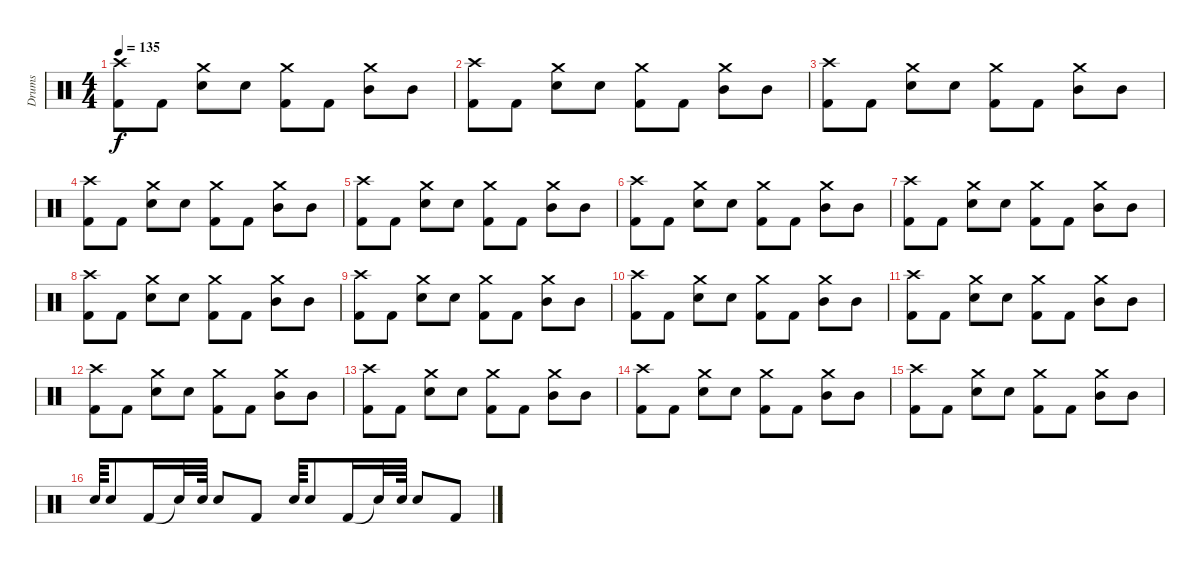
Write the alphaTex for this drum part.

\track ("Drums" "Drums") {instrument percussion}
\staff {score}
\articulation defaults
\ts (4 4)
\tempo 135
\clef neutral
\ks c
("Kick (hit) 2" "Crash high (hit)").8{dy f} "Kick (hit) 2".8 ("Snare (hit) 2" "Crash medium (hit)").8 "Snare (hit) 2".8 ("Kick (hit) 2" "Crash medium (hit)").8 "Kick (hit) 2".8 ("Mid Tom (hit)" "Crash medium (hit)").8 "Mid Tom (hit)".8 |
("Kick (hit) 2" "Crash high (hit)").8 "Kick (hit) 2".8 ("Snare (hit) 2" "Crash medium (hit)").8 "Snare (hit) 2".8 ("Kick (hit) 2" "Crash medium (hit)").8 "Kick (hit) 2".8 ("Mid Tom (hit)" "Crash medium (hit)").8 "Mid Tom (hit)".8 |
("Kick (hit) 2" "Crash high (hit)").8 "Kick (hit) 2".8 ("Snare (hit) 2" "Crash medium (hit)").8 "Snare (hit) 2".8 ("Kick (hit) 2" "Crash medium (hit)").8 "Kick (hit) 2".8 ("Mid Tom (hit)" "Crash medium (hit)").8 "Mid Tom (hit)".8 |
("Kick (hit) 2" "Crash high (hit)").8 "Kick (hit) 2".8 ("Snare (hit) 2" "Crash medium (hit)").8 "Snare (hit) 2".8 ("Kick (hit) 2" "Crash medium (hit)").8 "Kick (hit) 2".8 ("Mid Tom (hit)" "Crash medium (hit)").8 "Mid Tom (hit)".8 |
("Kick (hit) 2" "Crash high (hit)").8 "Kick (hit) 2".8 ("Snare (hit) 2" "Crash medium (hit)").8 "Snare (hit) 2".8 ("Kick (hit) 2" "Crash medium (hit)").8 "Kick (hit) 2".8 ("Mid Tom (hit)" "Crash medium (hit)").8 "Mid Tom (hit)".8 |
("Kick (hit) 2" "Crash high (hit)").8 "Kick (hit) 2".8 ("Snare (hit) 2" "Crash medium (hit)").8 "Snare (hit) 2".8 ("Kick (hit) 2" "Crash medium (hit)").8 "Kick (hit) 2".8 ("Mid Tom (hit)" "Crash medium (hit)").8 "Mid Tom (hit)".8 |
("Kick (hit) 2" "Crash high (hit)").8 "Kick (hit) 2".8 ("Snare (hit) 2" "Crash medium (hit)").8 "Snare (hit) 2".8 ("Kick (hit) 2" "Crash medium (hit)").8 "Kick (hit) 2".8 ("Mid Tom (hit)" "Crash medium (hit)").8 "Mid Tom (hit)".8 |
("Kick (hit) 2" "Crash high (hit)").8 "Kick (hit) 2".8 ("Snare (hit) 2" "Crash medium (hit)").8 "Snare (hit) 2".8 ("Kick (hit) 2" "Crash medium (hit)").8 "Kick (hit) 2".8 ("Mid Tom (hit)" "Crash medium (hit)").8 "Mid Tom (hit)".8 |
("Kick (hit) 2" "Crash high (hit)").8 "Kick (hit) 2".8 ("Snare (hit) 2" "Crash medium (hit)").8 "Snare (hit) 2".8 ("Kick (hit) 2" "Crash medium (hit)").8 "Kick (hit) 2".8 ("Mid Tom (hit)" "Crash medium (hit)").8 "Mid Tom (hit)".8 |
("Kick (hit) 2" "Crash high (hit)").8 "Kick (hit) 2".8 ("Snare (hit) 2" "Crash medium (hit)").8 "Snare (hit) 2".8 ("Kick (hit) 2" "Crash medium (hit)").8 "Kick (hit) 2".8 ("Mid Tom (hit)" "Crash medium (hit)").8 "Mid Tom (hit)".8 |
("Kick (hit) 2" "Crash high (hit)").8 "Kick (hit) 2".8 ("Snare (hit) 2" "Crash medium (hit)").8 "Snare (hit) 2".8 ("Kick (hit) 2" "Crash medium (hit)").8 "Kick (hit) 2".8 ("Mid Tom (hit)" "Crash medium (hit)").8 "Mid Tom (hit)".8 |
("Kick (hit) 2" "Crash high (hit)").8 "Kick (hit) 2".8 ("Snare (hit) 2" "Crash medium (hit)").8 "Snare (hit) 2".8 ("Kick (hit) 2" "Crash medium (hit)").8 "Kick (hit) 2".8 ("Mid Tom (hit)" "Crash medium (hit)").8 "Mid Tom (hit)".8 |
("Kick (hit) 2" "Crash high (hit)").8 "Kick (hit) 2".8 ("Snare (hit) 2" "Crash medium (hit)").8 "Snare (hit) 2".8 ("Kick (hit) 2" "Crash medium (hit)").8 "Kick (hit) 2".8 ("Mid Tom (hit)" "Crash medium (hit)").8 "Mid Tom (hit)".8 |
("Kick (hit) 2" "Crash high (hit)").8 "Kick (hit) 2".8 ("Snare (hit) 2" "Crash medium (hit)").8 "Snare (hit) 2".8 ("Kick (hit) 2" "Crash medium (hit)").8 "Kick (hit) 2".8 ("Mid Tom (hit)" "Crash medium (hit)").8 "Mid Tom (hit)".8 |
("Kick (hit) 2" "Crash high (hit)").8 "Kick (hit) 2".8 ("Snare (hit) 2" "Crash medium (hit)").8 "Snare (hit) 2".8 ("Kick (hit) 2" "Crash medium (hit)").8 "Kick (hit) 2".8 ("Mid Tom (hit)" "Crash medium (hit)").8 "Mid Tom (hit)".8 |
"Snare (hit) 2".64 "Snare (hit) 2".8 "Kick (hit) 2".16 "Snare (hit)"{t}.32 "Snare (hit) 2".64 "Snare (hit) 2".8 "Kick (hit) 2".8 "Snare (hit) 2".64 "Snare (hit) 2".8 "Kick (hit) 2".16 "Snare (hit)"{t}.32 "Snare (hit) 2".64 "Snare (hit) 2".8 "Kick (hit) 2".8
